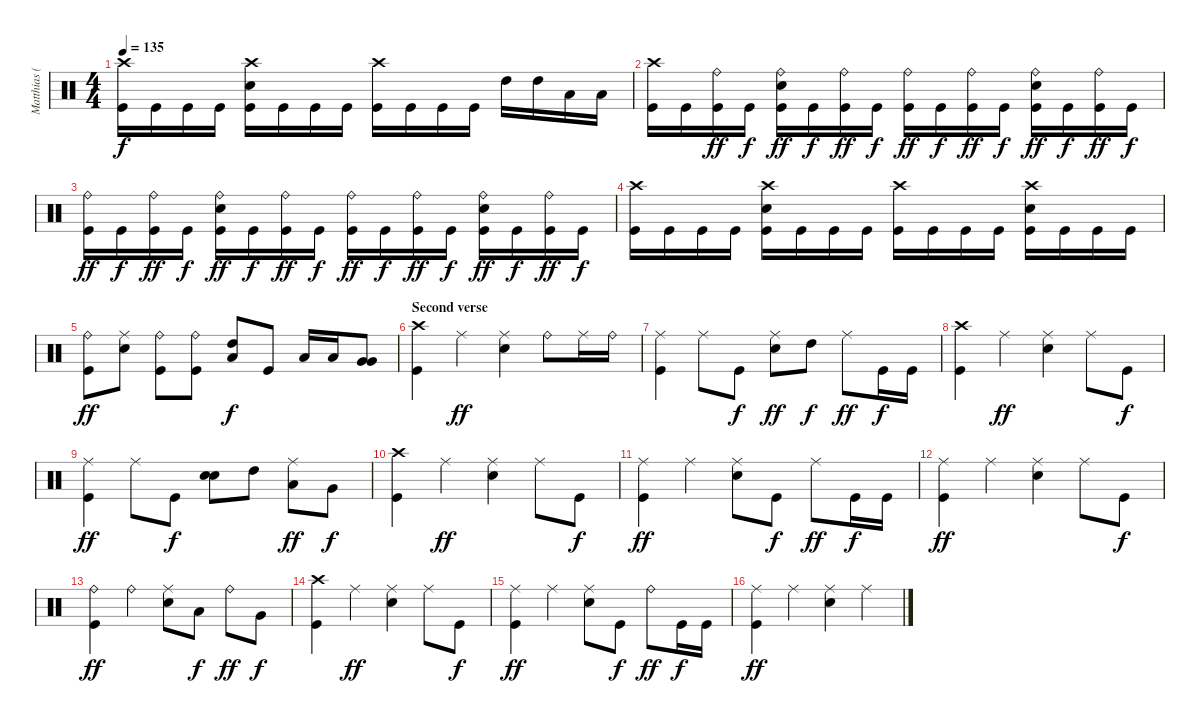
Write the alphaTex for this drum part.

\track ("Matthias (Drums)" "Matthias (") {instrument percussion}
\staff {score}
\articulation defaults
\ts (4 4)
\tempo 135
\clef neutral
\ks c
("Crash high (hit)" "Kick (hit)").16{dy f} "Kick (hit)".16 "Kick (hit)".16 "Kick (hit)".16 ("Crash high (hit)" "Electric Snare (hit)" "Kick (hit)").16 "Kick (hit)".16 "Kick (hit)".16 "Kick (hit)".16 ("Crash high (hit)" "Kick (hit)").16 "Kick (hit)".16 "Kick (hit)".16 "Kick (hit)".16 "High Tom (hit)".16 "High Tom (hit)".16 "Low Tom (hit)".16 "Low Tom (hit)".16 |
("Crash high (hit)" "Kick (hit)").16 "Kick (hit)".16 ("Ride (bell)" "Kick (hit)").16{dy ff} "Kick (hit)".16{dy f} ("Ride (bell)" "Electric Snare (hit)" "Kick (hit)").16{dy ff} "Kick (hit)".16{dy f} ("Ride (bell)" "Kick (hit)").16{dy ff} "Kick (hit)".16{dy f} ("Ride (bell)" "Kick (hit)").16{dy ff} "Kick (hit)".16{dy f} ("Ride (bell)" "Kick (hit)").16{dy ff} "Kick (hit)".16{dy f} ("Ride (bell)" "Electric Snare (hit)" "Kick (hit)").16{dy ff} "Kick (hit)".16{dy f} ("Ride (bell)" "Kick (hit)").16{dy ff} "Kick (hit)".16{dy f} |
("Ride (bell)" "Kick (hit)").16{dy ff} "Kick (hit)".16{dy f} ("Ride (bell)" "Kick (hit)").16{dy ff} "Kick (hit)".16{dy f} ("Ride (bell)" "Electric Snare (hit)" "Kick (hit)").16{dy ff} "Kick (hit)".16{dy f} ("Ride (bell)" "Kick (hit)").16{dy ff} "Kick (hit)".16{dy f} ("Ride (bell)" "Kick (hit)").16{dy ff} "Kick (hit)".16{dy f} ("Ride (bell)" "Kick (hit)").16{dy ff} "Kick (hit)".16{dy f} ("Ride (bell)" "Electric Snare (hit)" "Kick (hit)").16{dy ff} "Kick (hit)".16{dy f} ("Ride (bell)" "Kick (hit)").16{dy ff} "Kick (hit)".16{dy f} |
("Crash high (hit)" "Kick (hit)").16 "Kick (hit)".16 "Kick (hit)".16 "Kick (hit)".16 ("Crash high (hit)" "Electric Snare (hit)" "Kick (hit)").16 "Kick (hit)".16 "Kick (hit)".16 "Kick (hit)".16 ("Crash high (hit)" "Kick (hit)").16 "Kick (hit)".16 "Kick (hit)".16 "Kick (hit)".16 ("Crash high (hit)" "Electric Snare (hit)" "Kick (hit)").16 "Kick (hit)".16 "Kick (hit)".16 "Kick (hit)".16 |
("Ride (bell)" "Kick (hit)").8{dy ff} ("Ride (middle)" "Electric Snare (hit)").8 ("Ride (bell)" "Kick (hit)").8 ("Ride (bell)" "Kick (hit)").8 ("High Tom (hit)" "Low Tom (hit)").8{bu 120 dy f} "Kick (hit)".8 "Low Tom (hit)".16 "Low Tom (hit)".16 ("Very Low Tom (hit)" "Very Low Tom (hit)").8{bu 120} |
\section ("" "Second verse")
("Crash high (hit)" "Kick (hit)").4 "Ride (middle)".4{dy ff} ("Ride (middle)" "Electric Snare (hit)").4 "Ride (bell)".8 "Ride (middle)".16 "Ride (bell)".16 |
("Ride (middle)" "Kick (hit)").4 "Ride (middle)".8 "Kick (hit)".8{dy f} ("Ride (middle)" "Electric Snare (hit)").8{dy ff} "High Tom (hit)".8{dy f} "Ride (middle)".8{dy ff} "Kick (hit)".16{dy f} "Kick (hit)".16 |
("Crash high (hit)" "Kick (hit)").4 "Ride (middle)".4{dy ff} ("Ride (middle)" "Electric Snare (hit)").4 "Ride (middle)".8 "Kick (hit)".8{dy f} |
("Ride (middle)" "Kick (hit)").4{dy ff} "Ride (middle)".8 "Kick (hit)".8{dy f} ("Electric Snare (hit)" "Electric Snare (hit)").8{bu 120} "High Tom (hit)".8 ("Ride (middle)" "Low Tom (hit)").8{dy ff} "Very Low Tom (hit)".8{dy f} |
("Crash high (hit)" "Kick (hit)").4 "Ride (middle)".4{dy ff} ("Ride (middle)" "Electric Snare (hit)").4 "Ride (middle)".8 "Kick (hit)".8{dy f} |
("Ride (middle)" "Kick (hit)").4{dy ff} "Ride (middle)".4 ("Ride (middle)" "Electric Snare (hit)").8 "Kick (hit)".8{dy f} "Ride (middle)".8{dy ff} "Kick (hit)".16{dy f} "Kick (hit)".16 |
("Ride (middle)" "Kick (hit)").4{dy ff} "Ride (middle)".4 ("Ride (middle)" "Electric Snare (hit)").4 "Ride (middle)".8 "Kick (hit)".8{dy f} |
("Ride (bell)" "Kick (hit)").4{dy ff} "Ride (bell)".4 ("Ride (middle)" "Electric Snare (hit)").8 "Low Tom (hit)".8{dy f} "Ride (bell)".8{dy ff} "Very Low Tom (hit)".8{dy f} |
("Crash high (hit)" "Kick (hit)").4 "Ride (middle)".4{dy ff} ("Ride (middle)" "Electric Snare (hit)").4 "Ride (middle)".8 "Kick (hit)".8{dy f} |
("Ride (middle)" "Kick (hit)").4{dy ff} "Ride (middle)".4 ("Ride (middle)" "Electric Snare (hit)").8 "Kick (hit)".8{dy f} "Ride (bell)".8{dy ff} "Kick (hit)".16{dy f} "Kick (hit)".16 |
("Ride (middle)" "Kick (hit)").4{dy ff} "Ride (middle)".4 ("Ride (middle)" "Electric Snare (hit)").4 "Ride (middle)".4
